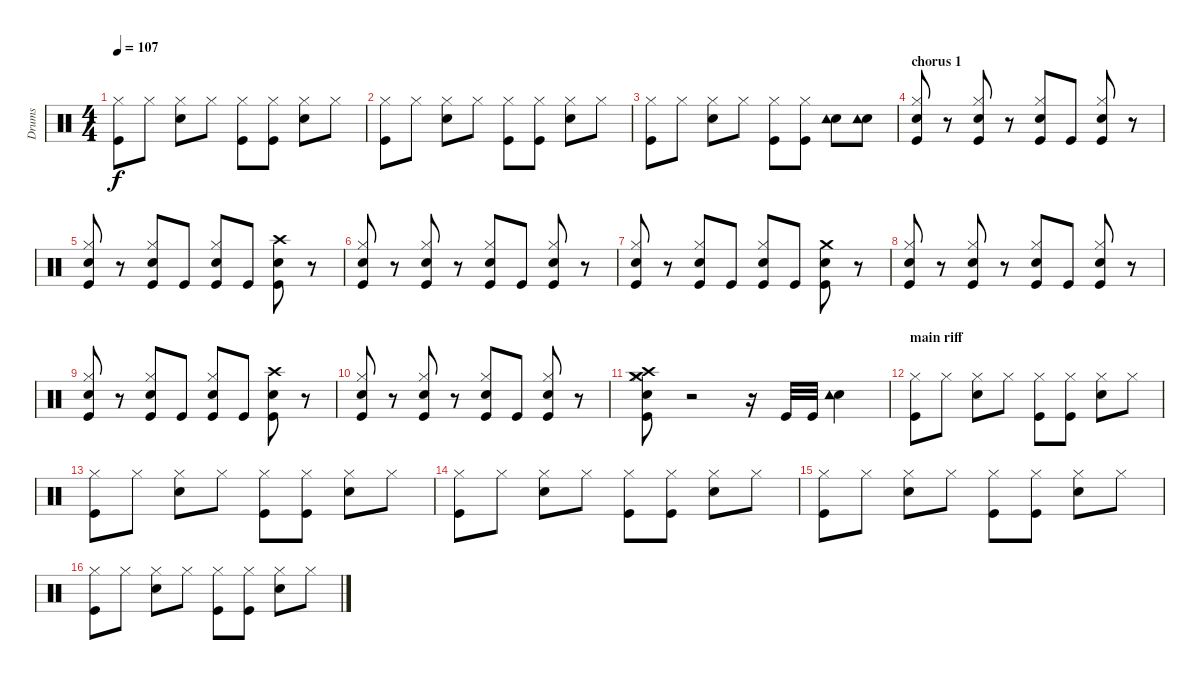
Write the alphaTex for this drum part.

\track ("Drums" "Drums") {instrument percussion}
\staff {score}
\articulation defaults
\ts (4 4)
\tempo 107
\clef neutral
\ks c
("Kick (hit)" "Hi-Hat (closed)").8{dy f} "Hi-Hat (closed)".8 ("Electric Snare (hit)" "Hi-Hat (closed)").8 "Hi-Hat (closed)".8 ("Kick (hit)" "Hi-Hat (closed)").8 ("Kick (hit)" "Hi-Hat (closed)").8 ("Electric Snare (hit)" "Hi-Hat (closed)").8 "Hi-Hat (closed)".8 |
("Kick (hit)" "Hi-Hat (closed)").8 "Hi-Hat (closed)".8 ("Electric Snare (hit)" "Hi-Hat (closed)").8 "Hi-Hat (closed)".8 ("Kick (hit)" "Hi-Hat (closed)").8 ("Kick (hit)" "Hi-Hat (closed)").8 ("Electric Snare (hit)" "Hi-Hat (closed)").8 "Hi-Hat (closed)".8 |
("Kick (hit)" "Hi-Hat (closed)").8 "Hi-Hat (closed)".8 ("Electric Snare (hit)" "Hi-Hat (closed)").8 "Hi-Hat (closed)".8 ("Kick (hit)" "Hi-Hat (closed)").8 ("Kick (hit)" "Hi-Hat (closed)").8 ("Electric Snare (hit)" "Tambourine (hit)").8 ("Electric Snare (hit)" "Tambourine (hit)").8 |
\section ("" "chorus 1")
("Kick (hit)" "Electric Snare (hit)" "Hi-Hat (closed)").8 r.8 ("Kick (hit)" "Electric Snare (hit)" "Hi-Hat (closed)").8 r.8 ("Kick (hit)" "Electric Snare (hit)" "Hi-Hat (closed)").8 "Kick (hit)".8 ("Kick (hit)" "Electric Snare (hit)" "Hi-Hat (closed)").8 r.8 |
("Kick (hit)" "Electric Snare (hit)" "Hi-Hat (closed)").8 r.8 ("Kick (hit)" "Electric Snare (hit)" "Hi-Hat (closed)").8 "Kick (hit)".8 ("Kick (hit)" "Electric Snare (hit)" "Hi-Hat (closed)").8 "Kick (hit)".8 ("Kick (hit)" "Electric Snare (hit)" "Crash high (hit)").8 r.8 |
("Kick (hit)" "Electric Snare (hit)" "Hi-Hat (closed)").8 r.8 ("Kick (hit)" "Electric Snare (hit)" "Hi-Hat (closed)").8 r.8 ("Kick (hit)" "Electric Snare (hit)" "Hi-Hat (closed)").8 "Kick (hit)".8 ("Kick (hit)" "Electric Snare (hit)" "Hi-Hat (closed)").8 r.8 |
("Kick (hit)" "Electric Snare (hit)" "Hi-Hat (closed)").8 r.8 ("Kick (hit)" "Electric Snare (hit)" "Hi-Hat (closed)").8 "Kick (hit)".8 ("Kick (hit)" "Electric Snare (hit)" "Hi-Hat (closed)").8 "Kick (hit)".8 ("Kick (hit)" "Electric Snare (hit)" "Crash medium (hit)").8 r.8 |
("Kick (hit)" "Electric Snare (hit)" "Hi-Hat (closed)").8 r.8 ("Kick (hit)" "Electric Snare (hit)" "Hi-Hat (closed)").8 r.8 ("Kick (hit)" "Electric Snare (hit)" "Hi-Hat (closed)").8 "Kick (hit)".8 ("Kick (hit)" "Electric Snare (hit)" "Hi-Hat (closed)").8 r.8 |
("Kick (hit)" "Electric Snare (hit)" "Hi-Hat (closed)").8 r.8 ("Kick (hit)" "Electric Snare (hit)" "Hi-Hat (closed)").8 "Kick (hit)".8 ("Kick (hit)" "Electric Snare (hit)" "Hi-Hat (closed)").8 "Kick (hit)".8 ("Kick (hit)" "Electric Snare (hit)" "Crash high (hit)").8 r.8 |
("Kick (hit)" "Electric Snare (hit)" "Hi-Hat (closed)").8 r.8 ("Kick (hit)" "Electric Snare (hit)" "Hi-Hat (closed)").8 r.8 ("Kick (hit)" "Electric Snare (hit)" "Hi-Hat (closed)").8 "Kick (hit)".8 ("Kick (hit)" "Electric Snare (hit)" "Hi-Hat (closed)").8 r.8 |
("Kick (hit)" "Electric Snare (hit)" "Hi-Hat (closed)" "Crash high (hit)" "Crash medium (hit)").8 r.2 r.16 "Kick (hit)".32 "Kick (hit)".32 ("Electric Snare (hit)" "Tambourine (hit)").4 |
\section ("" "main riff")
("Kick (hit)" "Hi-Hat (closed)").8 "Hi-Hat (closed)".8 ("Electric Snare (hit)" "Hi-Hat (closed)").8 "Hi-Hat (closed)".8 ("Kick (hit)" "Hi-Hat (closed)").8 ("Kick (hit)" "Hi-Hat (closed)").8 ("Electric Snare (hit)" "Hi-Hat (closed)").8 "Hi-Hat (closed)".8 |
("Kick (hit)" "Hi-Hat (closed)").8 "Hi-Hat (closed)".8 ("Electric Snare (hit)" "Hi-Hat (closed)").8 "Hi-Hat (closed)".8 ("Kick (hit)" "Hi-Hat (closed)").8 ("Kick (hit)" "Hi-Hat (closed)").8 ("Electric Snare (hit)" "Hi-Hat (closed)").8 "Hi-Hat (closed)".8 |
("Kick (hit)" "Hi-Hat (closed)").8 "Hi-Hat (closed)".8 ("Electric Snare (hit)" "Hi-Hat (closed)").8 "Hi-Hat (closed)".8 ("Kick (hit)" "Hi-Hat (closed)").8 ("Kick (hit)" "Hi-Hat (closed)").8 ("Electric Snare (hit)" "Hi-Hat (closed)").8 "Hi-Hat (closed)".8 |
("Kick (hit)" "Hi-Hat (closed)").8 "Hi-Hat (closed)".8 ("Electric Snare (hit)" "Hi-Hat (closed)").8 "Hi-Hat (closed)".8 ("Kick (hit)" "Hi-Hat (closed)").8 ("Kick (hit)" "Hi-Hat (closed)").8 ("Electric Snare (hit)" "Hi-Hat (closed)").8 "Hi-Hat (closed)".8 |
("Kick (hit)" "Hi-Hat (closed)").8 "Hi-Hat (closed)".8 ("Electric Snare (hit)" "Hi-Hat (closed)").8 "Hi-Hat (closed)".8 ("Kick (hit)" "Hi-Hat (closed)").8 ("Kick (hit)" "Hi-Hat (closed)").8 ("Electric Snare (hit)" "Hi-Hat (closed)").8 "Hi-Hat (closed)".8
